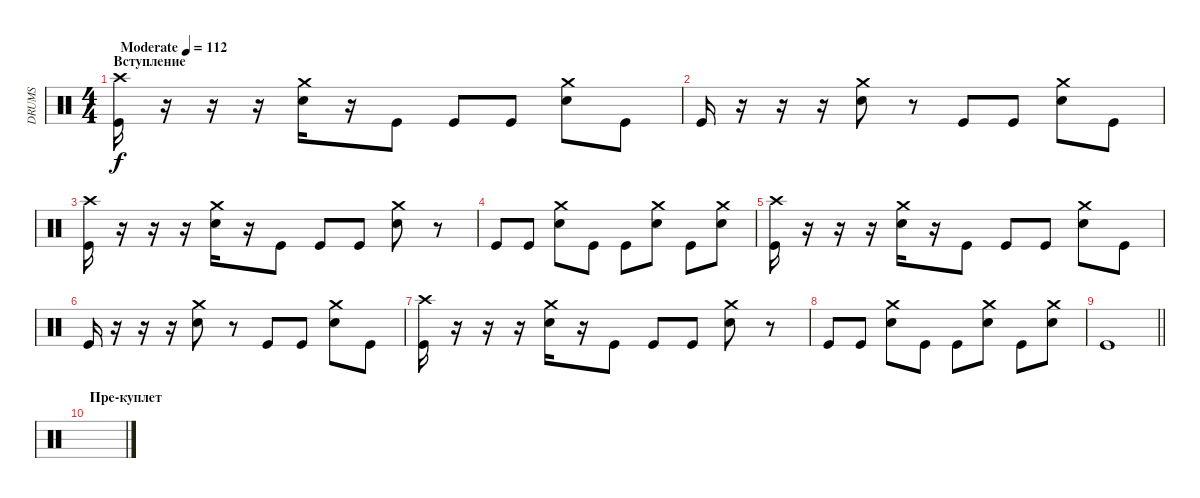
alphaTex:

\track ("DRUMS" "DRUMS") {instrument percussion}
\staff {score}
\articulation defaults
\ts (4 4)
\section ("" "Вступление")
\tempo (112 "Moderate")
\clef neutral
\ks c
("Crash high (hit)" "Kick (hit)").16{dy f} r.16 r.16 r.16 ("Crash medium (hit)" "Snare (hit) 2").16 r.16 "Kick (hit)".8 "Kick (hit)".8 "Kick (hit)".8 ("Crash medium (hit)" "Snare (hit) 2").8 "Kick (hit)".8 |
"Kick (hit)".16 r.16 r.16 r.16 ("Crash medium (hit)" "Snare (hit) 2").8 r.8 "Kick (hit)".8 "Kick (hit)".8 ("Crash medium (hit)" "Snare (hit) 2").8 "Kick (hit)".8 |
("Crash high (hit)" "Kick (hit)").16 r.16 r.16 r.16 ("Crash medium (hit)" "Snare (hit) 2").16 r.16 "Kick (hit)".8 "Kick (hit)".8 "Kick (hit)".8 ("Crash medium (hit)" "Snare (hit) 2").8 r.8 |
"Kick (hit)".8 "Kick (hit)".8 ("Crash medium (hit)" "Snare (hit) 2").8 "Kick (hit)".8 "Kick (hit)".8 ("Crash medium (hit)" "Snare (hit) 2").8 "Kick (hit)".8 ("Crash medium (hit)" "Snare (hit) 2").8 |
("Crash high (hit)" "Kick (hit)").16 r.16 r.16 r.16 ("Crash medium (hit)" "Snare (hit) 2").16 r.16 "Kick (hit)".8 "Kick (hit)".8 "Kick (hit)".8 ("Crash medium (hit)" "Snare (hit) 2").8 "Kick (hit)".8 |
"Kick (hit)".16 r.16 r.16 r.16 ("Crash medium (hit)" "Snare (hit) 2").8 r.8 "Kick (hit)".8 "Kick (hit)".8 ("Crash medium (hit)" "Snare (hit) 2").8 "Kick (hit)".8 |
("Crash high (hit)" "Kick (hit)").16 r.16 r.16 r.16 ("Crash medium (hit)" "Snare (hit) 2").16 r.16 "Kick (hit)".8 "Kick (hit)".8 "Kick (hit)".8 ("Crash medium (hit)" "Snare (hit) 2").8 r.8 |
"Kick (hit)".8 "Kick (hit)".8 ("Crash medium (hit)" "Snare (hit) 2").8 "Kick (hit)".8 "Kick (hit)".8 ("Crash medium (hit)" "Snare (hit) 2").8 "Kick (hit)".8 ("Crash medium (hit)" "Snare (hit) 2").8 |
\barLineRight lightlight "Kick (hit)".1
|
\section ("" "Пре-куплет")
